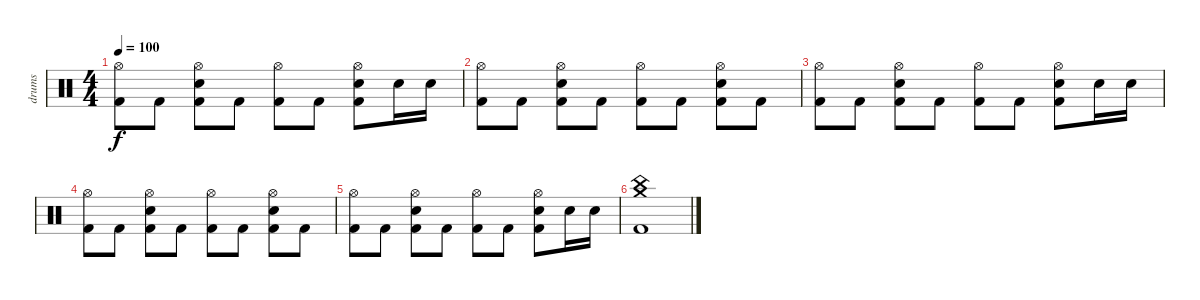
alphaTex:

\track ("drums" "drums") {instrument percussion}
\staff {score}
\articulation defaults
\ts (4 4)
\tempo 100
\clef neutral
\ks c
("Hi-Hat (open)" "Kick (hit) 2").8{dy f} "Kick (hit) 2".8 ("Hi-Hat (open)" "Snare (hit) 2" "Kick (hit) 2").8 "Kick (hit) 2".8 ("Hi-Hat (open)" "Kick (hit) 2").8 "Kick (hit) 2".8 ("Hi-Hat (open)" "Snare (hit) 2" "Kick (hit) 2").8 "Snare (hit) 2".16 "Snare (hit) 2".16 |
("Hi-Hat (open)" "Kick (hit) 2").8 "Kick (hit) 2".8 ("Hi-Hat (open)" "Snare (hit) 2" "Kick (hit) 2").8 "Kick (hit) 2".8 ("Hi-Hat (open)" "Kick (hit) 2").8 "Kick (hit) 2".8 ("Hi-Hat (open)" "Snare (hit) 2" "Kick (hit) 2").8 "Kick (hit) 2".8 |
("Hi-Hat (open)" "Kick (hit) 2").8 "Kick (hit) 2".8 ("Hi-Hat (open)" "Snare (hit) 2" "Kick (hit) 2").8 "Kick (hit) 2".8 ("Hi-Hat (open)" "Kick (hit) 2").8 "Kick (hit) 2".8 ("Hi-Hat (open)" "Snare (hit) 2" "Kick (hit) 2").8 "Snare (hit) 2".16 "Snare (hit) 2".16 |
("Hi-Hat (open)" "Kick (hit) 2").8 "Kick (hit) 2".8 ("Hi-Hat (open)" "Snare (hit) 2" "Kick (hit) 2").8 "Kick (hit) 2".8 ("Hi-Hat (open)" "Kick (hit) 2").8 "Kick (hit) 2".8 ("Hi-Hat (open)" "Snare (hit) 2" "Kick (hit) 2").8 "Kick (hit) 2".8 |
("Hi-Hat (open)" "Kick (hit) 2").8 "Kick (hit) 2".8 ("Hi-Hat (open)" "Snare (hit) 2" "Kick (hit) 2").8 "Kick (hit) 2".8 ("Hi-Hat (open)" "Kick (hit) 2").8 "Kick (hit) 2".8 ("Hi-Hat (open)" "Snare (hit) 2" "Kick (hit) 2").8 "Snare (hit) 2".16 "Snare (hit) 2".16 |
("China (hit)" "Crash medium (hit)" "Kick (hit) 2").1
